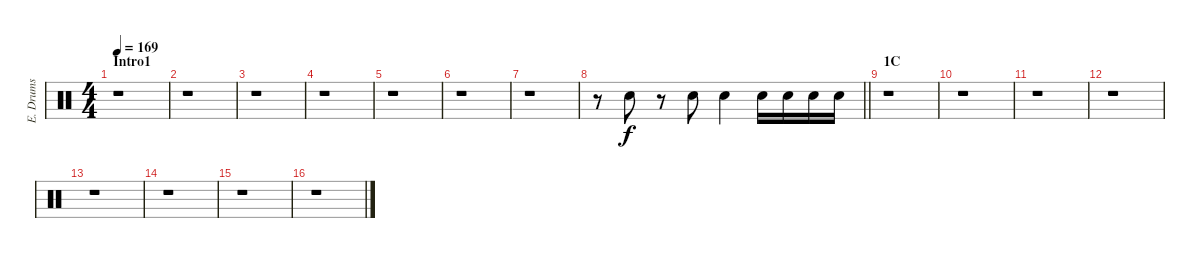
\track ("E. Drums" "E. Drums") {instrument percussion}
\staff {score}
\articulation defaults
\ts (4 4)
\section ("" "Intro1")
\tempo 169
\clef neutral
\ks c
r.1{dy f} |
r.1 |
r.1 |
r.1 |
r.1 |
r.1 |
r.1 |
\barLineRight lightlight
r.8 "Electric Snare (hit)".8 r.8 "Electric Snare (hit)".8 "Electric Snare (hit)".4 "Electric Snare (hit)".16 "Electric Snare (hit)".16 "Electric Snare (hit)".16 "Electric Snare (hit)".16 |
\section ("" "1C")
r.1 |
r.1 |
r.1 |
r.1 |
r.1 |
r.1 |
r.1 |
r.1
